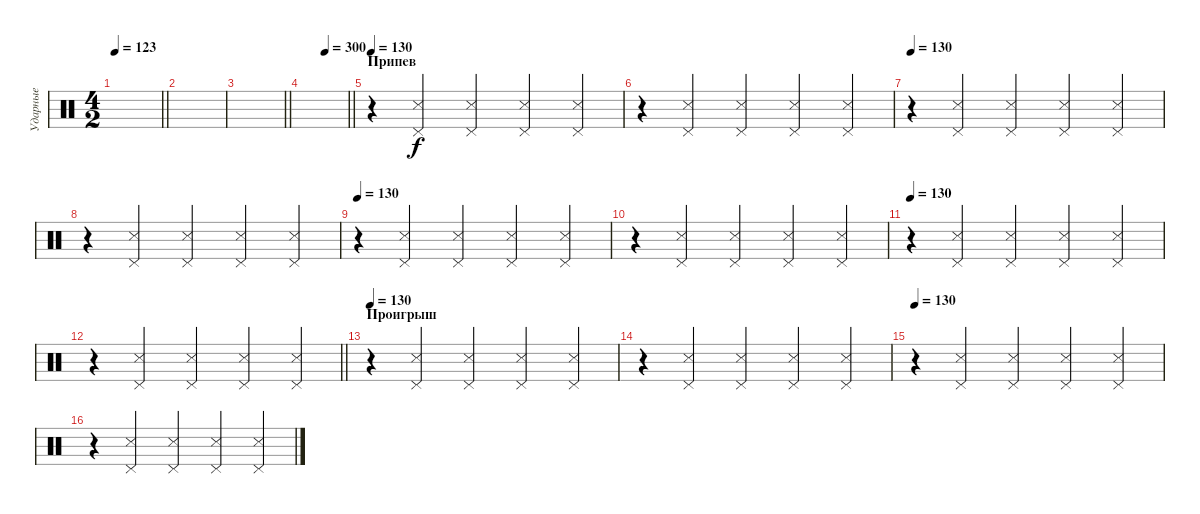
\track ("Ударные" "Ударные") {instrument percussion}
\staff {score}
\articulation defaults
\ts (4 2)
\tempo 123
\clef neutral
\barLineRight lightlight
\ks c
|
|
\barLineRight lightlight
|
\tempo (300 0.5)
\barLineRight lightlight
|
\section ("" "Припев")
\tempo 130
r.4 ("Pedal Hi-Hat (hit)" "Snare (side stick) 3").2 ("Pedal Hi-Hat (hit)" "Snare (side stick) 3").2 ("Pedal Hi-Hat (hit)" "Snare (side stick) 3").2 ("Pedal Hi-Hat (hit)" "Snare (side stick) 3").4 |
r.4 ("Pedal Hi-Hat (hit)" "Snare (side stick) 3").2 ("Pedal Hi-Hat (hit)" "Snare (side stick) 3").2 ("Pedal Hi-Hat (hit)" "Snare (side stick) 3").2 ("Pedal Hi-Hat (hit)" "Snare (side stick) 3").4 |
\tempo 130
r.4 ("Pedal Hi-Hat (hit)" "Snare (side stick) 3").2 ("Pedal Hi-Hat (hit)" "Snare (side stick) 3").2 ("Pedal Hi-Hat (hit)" "Snare (side stick) 3").2 ("Pedal Hi-Hat (hit)" "Snare (side stick) 3").4 |
r.4 ("Pedal Hi-Hat (hit)" "Snare (side stick) 3").2 ("Pedal Hi-Hat (hit)" "Snare (side stick) 3").2 ("Pedal Hi-Hat (hit)" "Snare (side stick) 3").2 ("Pedal Hi-Hat (hit)" "Snare (side stick) 3").4 |
\tempo 130
r.4 ("Pedal Hi-Hat (hit)" "Snare (side stick) 3").2 ("Pedal Hi-Hat (hit)" "Snare (side stick) 3").2 ("Pedal Hi-Hat (hit)" "Snare (side stick) 3").2 ("Pedal Hi-Hat (hit)" "Snare (side stick) 3").4 |
r.4 ("Pedal Hi-Hat (hit)" "Snare (side stick) 3").2 ("Pedal Hi-Hat (hit)" "Snare (side stick) 3").2 ("Pedal Hi-Hat (hit)" "Snare (side stick) 3").2 ("Pedal Hi-Hat (hit)" "Snare (side stick) 3").4 |
\tempo 130
r.4 ("Pedal Hi-Hat (hit)" "Snare (side stick) 3").2 ("Pedal Hi-Hat (hit)" "Snare (side stick) 3").2 ("Pedal Hi-Hat (hit)" "Snare (side stick) 3").2 ("Pedal Hi-Hat (hit)" "Snare (side stick) 3").4 |
\barLineRight lightlight
r.4 ("Pedal Hi-Hat (hit)" "Snare (side stick) 3").2 ("Pedal Hi-Hat (hit)" "Snare (side stick) 3").2 ("Pedal Hi-Hat (hit)" "Snare (side stick) 3").2 ("Pedal Hi-Hat (hit)" "Snare (side stick) 3").4 |
\section ("" "Проигрыш")
\tempo 130
r.4 ("Pedal Hi-Hat (hit)" "Snare (side stick) 3").2 ("Pedal Hi-Hat (hit)" "Snare (side stick) 3").2 ("Pedal Hi-Hat (hit)" "Snare (side stick) 3").2 ("Pedal Hi-Hat (hit)" "Snare (side stick) 3").4 |
r.4 ("Pedal Hi-Hat (hit)" "Snare (side stick) 3").2 ("Pedal Hi-Hat (hit)" "Snare (side stick) 3").2 ("Pedal Hi-Hat (hit)" "Snare (side stick) 3").2 ("Pedal Hi-Hat (hit)" "Snare (side stick) 3").4 |
\tempo 130
r.4 ("Pedal Hi-Hat (hit)" "Snare (side stick) 3").2 ("Pedal Hi-Hat (hit)" "Snare (side stick) 3").2 ("Pedal Hi-Hat (hit)" "Snare (side stick) 3").2 ("Pedal Hi-Hat (hit)" "Snare (side stick) 3").4 |
r.4 ("Pedal Hi-Hat (hit)" "Snare (side stick) 3").2 ("Pedal Hi-Hat (hit)" "Snare (side stick) 3").2 ("Pedal Hi-Hat (hit)" "Snare (side stick) 3").2 ("Pedal Hi-Hat (hit)" "Snare (side stick) 3").4
